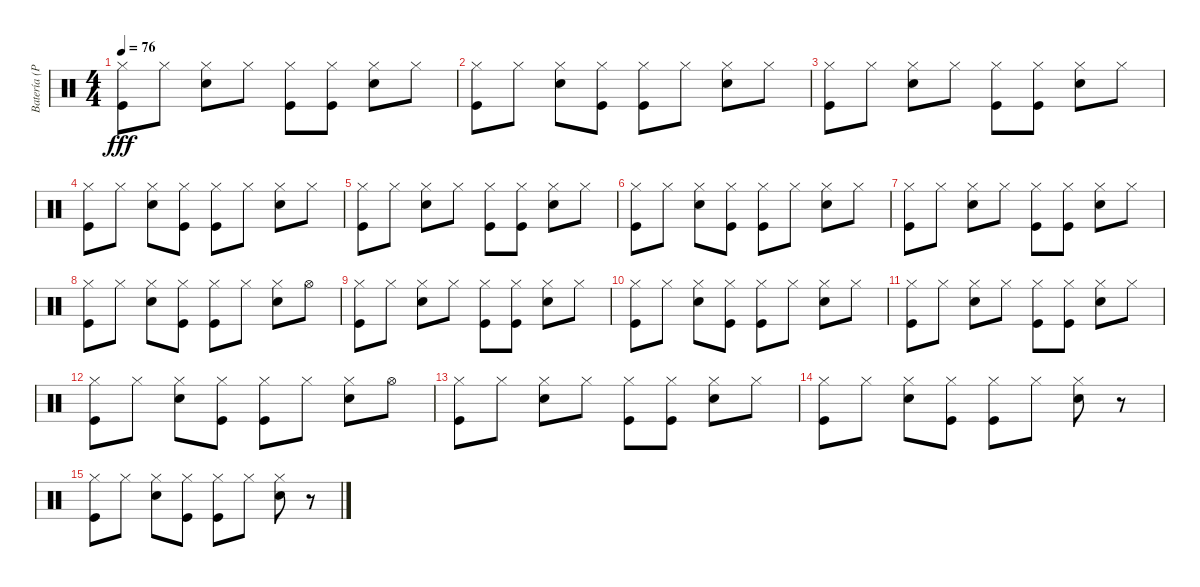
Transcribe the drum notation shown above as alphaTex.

\track ("Batería (Phill Selway)" "Batería (P") {instrument percussion}
\staff {score}
\articulation defaults
\ts (4 4)
\tempo 76
\clef neutral
\ks c
("Hi-Hat (closed)" "Kick (hit)").8{dy fff} "Hi-Hat (closed)".8 ("Hi-Hat (closed)" "Snare (hit) 2").8 "Hi-Hat (closed)".8 ("Hi-Hat (closed)" "Kick (hit)").8 ("Hi-Hat (closed)" "Kick (hit)").8 ("Hi-Hat (closed)" "Snare (hit) 2").8 "Hi-Hat (closed)".8 |
("Hi-Hat (closed)" "Kick (hit)").8 "Hi-Hat (closed)".8 ("Hi-Hat (closed)" "Snare (hit) 2").8 ("Hi-Hat (closed)" "Kick (hit)").8 ("Hi-Hat (closed)" "Kick (hit)").8 "Hi-Hat (closed)".8 ("Hi-Hat (closed)" "Snare (hit) 2").8 "Hi-Hat (closed)".8 |
("Hi-Hat (closed)" "Kick (hit)").8 "Hi-Hat (closed)".8 ("Hi-Hat (closed)" "Snare (hit) 2").8 "Hi-Hat (closed)".8 ("Hi-Hat (closed)" "Kick (hit)").8 ("Hi-Hat (closed)" "Kick (hit)").8 ("Hi-Hat (closed)" "Snare (hit) 2").8 "Hi-Hat (closed)".8 |
("Hi-Hat (closed)" "Kick (hit)").8 "Hi-Hat (closed)".8 ("Hi-Hat (closed)" "Snare (hit) 2").8 ("Hi-Hat (closed)" "Kick (hit)").8 ("Hi-Hat (closed)" "Kick (hit)").8 "Hi-Hat (closed)".8 ("Hi-Hat (closed)" "Snare (hit) 2").8 "Hi-Hat (closed)".8 |
("Hi-Hat (closed)" "Kick (hit)").8 "Hi-Hat (closed)".8 ("Hi-Hat (closed)" "Snare (hit) 2").8 "Hi-Hat (closed)".8 ("Hi-Hat (closed)" "Kick (hit)").8 ("Hi-Hat (closed)" "Kick (hit)").8 ("Hi-Hat (closed)" "Snare (hit) 2").8 "Hi-Hat (closed)".8 |
("Hi-Hat (closed)" "Kick (hit)").8 "Hi-Hat (closed)".8 ("Hi-Hat (closed)" "Snare (hit) 2").8 ("Hi-Hat (closed)" "Kick (hit)").8 ("Hi-Hat (closed)" "Kick (hit)").8 "Hi-Hat (closed)".8 ("Hi-Hat (closed)" "Snare (hit) 2").8 "Hi-Hat (closed)".8 |
("Hi-Hat (closed)" "Kick (hit)").8 "Hi-Hat (closed)".8 ("Hi-Hat (closed)" "Snare (hit) 2").8 "Hi-Hat (closed)".8 ("Hi-Hat (closed)" "Kick (hit)").8 ("Hi-Hat (closed)" "Kick (hit)").8 ("Hi-Hat (closed)" "Snare (hit) 2").8 "Hi-Hat (closed)".8 |
("Hi-Hat (closed)" "Kick (hit)").8 "Hi-Hat (closed)".8 ("Hi-Hat (closed)" "Snare (hit) 2").8 ("Hi-Hat (closed)" "Kick (hit)").8 ("Hi-Hat (closed)" "Kick (hit)").8 "Hi-Hat (closed)".8 ("Hi-Hat (closed)" "Snare (hit) 2").8 "Hi-Hat (open)".8 |
("Hi-Hat (closed)" "Kick (hit)").8 "Hi-Hat (closed)".8 ("Hi-Hat (closed)" "Snare (hit) 2").8 "Hi-Hat (closed)".8 ("Hi-Hat (closed)" "Kick (hit)").8 ("Hi-Hat (closed)" "Kick (hit)").8 ("Hi-Hat (closed)" "Snare (hit) 2").8 "Hi-Hat (closed)".8 |
("Hi-Hat (closed)" "Kick (hit)").8 "Hi-Hat (closed)".8 ("Hi-Hat (closed)" "Snare (hit) 2").8 ("Hi-Hat (closed)" "Kick (hit)").8 ("Hi-Hat (closed)" "Kick (hit)").8 "Hi-Hat (closed)".8 ("Hi-Hat (closed)" "Snare (hit) 2").8 "Hi-Hat (closed)".8 |
("Hi-Hat (closed)" "Kick (hit)").8 "Hi-Hat (closed)".8 ("Hi-Hat (closed)" "Snare (hit) 2").8 "Hi-Hat (closed)".8 ("Hi-Hat (closed)" "Kick (hit)").8 ("Hi-Hat (closed)" "Kick (hit)").8 ("Hi-Hat (closed)" "Snare (hit) 2").8 "Hi-Hat (closed)".8 |
("Hi-Hat (closed)" "Kick (hit)").8 "Hi-Hat (closed)".8 ("Hi-Hat (closed)" "Snare (hit) 2").8 ("Hi-Hat (closed)" "Kick (hit)").8 ("Hi-Hat (closed)" "Kick (hit)").8 "Hi-Hat (closed)".8 ("Hi-Hat (closed)" "Snare (hit) 2").8 "Hi-Hat (open)".8 |
("Hi-Hat (closed)" "Kick (hit)").8 "Hi-Hat (closed)".8 ("Hi-Hat (closed)" "Snare (hit) 2").8 "Hi-Hat (closed)".8 ("Hi-Hat (closed)" "Kick (hit)").8 ("Hi-Hat (closed)" "Kick (hit)").8 ("Hi-Hat (closed)" "Snare (hit) 2").8 "Hi-Hat (closed)".8 |
("Hi-Hat (closed)" "Kick (hit)").8 "Hi-Hat (closed)".8 ("Hi-Hat (closed)" "Snare (hit) 2").8 ("Hi-Hat (closed)" "Kick (hit)").8 ("Hi-Hat (closed)" "Kick (hit)").8 "Hi-Hat (closed)".8 ("Hi-Hat (closed)" "Snare (hit) 2").8 r.8 |
("Hi-Hat (closed)" "Kick (hit)").8 "Hi-Hat (closed)".8 ("Hi-Hat (closed)" "Snare (hit) 2").8 ("Hi-Hat (closed)" "Kick (hit)").8 ("Hi-Hat (closed)" "Kick (hit)").8 "Hi-Hat (closed)".8 ("Hi-Hat (closed)" "Snare (hit) 2").8 r.8
